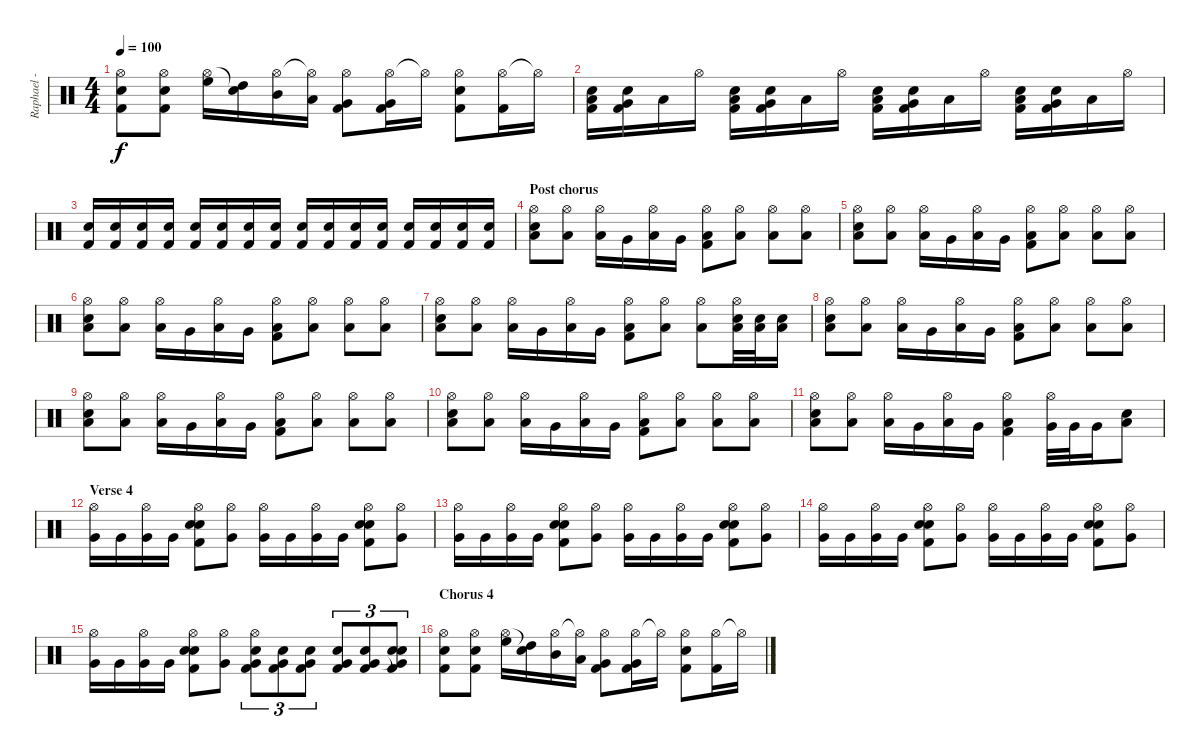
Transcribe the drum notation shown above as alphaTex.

\track ("Raphael - Batterie" "Raphael - ") {instrument percussion}
\staff {score}
\articulation defaults
\ts (4 4)
\tempo 100
\clef neutral
\ks c
("Hi-Hat (open)" "Electric Snare (hit)" "Kick (hit) 2").8{dy f} ("Hi-Hat (open)" "Electric Snare (hit)" "Kick (hit) 2").8 ("Hi-Hat (open)" "High Floor Tom (hit)").16 ("Snare (hit)"{t} "High Tom (hit)").16 ("Hi-Hat (open)" "Mid Tom (hit)").16 ("Hi-Hat (open)"{t} "Low Tom (hit)").16 ("Hi-Hat (open)" "Very Low Tom (hit)" "Kick (hit) 2").8 ("Hi-Hat (open)" "Very Low Tom (hit)" "Kick (hit) 2").16 "Hi-Hat (open)"{t}.16 ("Hi-Hat (open)" "Snare (hit) 2" "Kick (hit) 2").8 ("Hi-Hat (open)" "Kick (hit) 2").16 "Hi-Hat (open)"{t}.16 |
("Low Tom (hit)" "Electric Snare (hit)" "Kick (hit) 2").16 ("Very Low Tom (hit)" "Electric Snare (hit)" "Kick (hit) 2").16 "Low Floor Tom (hit)".16 "Hi-Hat (open)".16 ("Low Tom (hit)" "Electric Snare (hit)" "Kick (hit) 2").16 ("Very Low Tom (hit)" "Electric Snare (hit)" "Kick (hit) 2").16 "Low Floor Tom (hit)".16 "Hi-Hat (open)".16 ("Low Tom (hit)" "Electric Snare (hit)" "Kick (hit) 2").16 ("Very Low Tom (hit)" "Electric Snare (hit)" "Kick (hit) 2").16 "Low Floor Tom (hit)".16 "Hi-Hat (open)".16 ("Low Tom (hit)" "Electric Snare (hit)" "Kick (hit) 2").16 ("Very Low Tom (hit)" "Electric Snare (hit)" "Kick (hit) 2").16 "Low Floor Tom (hit)".16 "Hi-Hat (open)".16 |
("Electric Snare (hit)" "Kick (hit) 2").16 ("Electric Snare (hit)" "Kick (hit) 2").16 ("Electric Snare (hit)" "Kick (hit) 2").16 ("Electric Snare (hit)" "Kick (hit) 2").16 ("Electric Snare (hit)" "Kick (hit) 2").16 ("Electric Snare (hit)" "Kick (hit) 2").16 ("Electric Snare (hit)" "Kick (hit) 2").16 ("Electric Snare (hit)" "Kick (hit) 2").16 ("Electric Snare (hit)" "Kick (hit) 2").16 ("Electric Snare (hit)" "Kick (hit) 2").16 ("Electric Snare (hit)" "Kick (hit) 2").16 ("Electric Snare (hit)" "Kick (hit) 2").16 ("Electric Snare (hit)" "Kick (hit) 2").16 ("Electric Snare (hit)" "Kick (hit) 2").16 ("Electric Snare (hit)" "Kick (hit) 2").16 ("Electric Snare (hit)" "Kick (hit) 2").16 |
\section ("" "Post chorus")
("Hi-Hat (open)" "Low Floor Tom (hit)" "Snare (hit) 2").8 ("Hi-Hat (open)" "Low Floor Tom (hit)").8 ("Hi-Hat (open)" "Low Tom (hit)").16 "Very Low Tom (hit)".16 ("Hi-Hat (open)" "Low Floor Tom (hit)").16 "Very Low Tom (hit)".16 ("Hi-Hat (open)" "Low Floor Tom (hit)" "Kick (hit) 2").8 ("Hi-Hat (open)" "Low Floor Tom (hit)").8 ("Hi-Hat (open)" "Low Floor Tom (hit)").8 ("Hi-Hat (open)" "Low Floor Tom (hit)").8 |
("Hi-Hat (open)" "Low Floor Tom (hit)" "Snare (hit) 2").8 ("Hi-Hat (open)" "Low Floor Tom (hit)").8 ("Hi-Hat (open)" "Low Tom (hit)").16 "Very Low Tom (hit)".16 ("Hi-Hat (open)" "Low Floor Tom (hit)").16 "Very Low Tom (hit)".16 ("Hi-Hat (open)" "Low Floor Tom (hit)" "Kick (hit) 2").8 ("Hi-Hat (open)" "Low Floor Tom (hit)").8 ("Hi-Hat (open)" "Low Floor Tom (hit)").8 ("Hi-Hat (open)" "Low Floor Tom (hit)").8 |
("Hi-Hat (open)" "Low Floor Tom (hit)" "Snare (hit) 2").8 ("Hi-Hat (open)" "Low Floor Tom (hit)").8 ("Hi-Hat (open)" "Low Tom (hit)").16 "Very Low Tom (hit)".16 ("Hi-Hat (open)" "Low Floor Tom (hit)").16 "Very Low Tom (hit)".16 ("Hi-Hat (open)" "Low Floor Tom (hit)" "Kick (hit) 2").8 ("Hi-Hat (open)" "Low Floor Tom (hit)").8 ("Hi-Hat (open)" "Low Floor Tom (hit)").8 ("Hi-Hat (open)" "Low Floor Tom (hit)").8 |
("Hi-Hat (open)" "Low Floor Tom (hit)" "Snare (hit) 2").8 ("Hi-Hat (open)" "Low Floor Tom (hit)").8 ("Hi-Hat (open)" "Low Tom (hit)").16 "Very Low Tom (hit)".16 ("Hi-Hat (open)" "Low Floor Tom (hit)").16 "Very Low Tom (hit)".16 ("Hi-Hat (open)" "Low Floor Tom (hit)" "Kick (hit) 2").8 ("Hi-Hat (open)" "Low Floor Tom (hit)").8 ("Hi-Hat (open)" "Low Floor Tom (hit)").8 ("Hi-Hat (open)" "Low Floor Tom (hit)" "Snare (hit) 2").32 ("Low Floor Tom (hit)" "Snare (hit) 2").32 ("Low Floor Tom (hit)" "Snare (hit) 2").16 |
("Hi-Hat (open)" "Low Floor Tom (hit)" "Snare (hit) 2").8 ("Hi-Hat (open)" "Low Floor Tom (hit)").8 ("Hi-Hat (open)" "Low Tom (hit)").16 "Very Low Tom (hit)".16 ("Hi-Hat (open)" "Low Floor Tom (hit)").16 "Very Low Tom (hit)".16 ("Hi-Hat (open)" "Low Floor Tom (hit)" "Kick (hit) 2").8 ("Hi-Hat (open)" "Low Floor Tom (hit)").8 ("Hi-Hat (open)" "Low Floor Tom (hit)").8 ("Hi-Hat (open)" "Low Floor Tom (hit)").8 |
("Hi-Hat (open)" "Low Floor Tom (hit)" "Snare (hit) 2").8 ("Hi-Hat (open)" "Low Floor Tom (hit)").8 ("Hi-Hat (open)" "Low Tom (hit)").16 "Very Low Tom (hit)".16 ("Hi-Hat (open)" "Low Floor Tom (hit)").16 "Very Low Tom (hit)".16 ("Hi-Hat (open)" "Low Floor Tom (hit)" "Kick (hit) 2").8 ("Hi-Hat (open)" "Low Floor Tom (hit)").8 ("Hi-Hat (open)" "Low Floor Tom (hit)").8 ("Hi-Hat (open)" "Low Floor Tom (hit)").8 |
("Hi-Hat (open)" "Low Floor Tom (hit)" "Snare (hit) 2").8 ("Hi-Hat (open)" "Low Floor Tom (hit)").8 ("Hi-Hat (open)" "Low Tom (hit)").16 "Very Low Tom (hit)".16 ("Hi-Hat (open)" "Low Floor Tom (hit)").16 "Very Low Tom (hit)".16 ("Hi-Hat (open)" "Low Floor Tom (hit)" "Kick (hit) 2").8 ("Hi-Hat (open)" "Low Floor Tom (hit)").8 ("Hi-Hat (open)" "Low Floor Tom (hit)").8 ("Hi-Hat (open)" "Low Floor Tom (hit)").8 |
("Hi-Hat (open)" "Low Floor Tom (hit)" "Snare (hit) 2").8 ("Hi-Hat (open)" "Low Floor Tom (hit)").8 ("Hi-Hat (open)" "Low Tom (hit)").16 "Very Low Tom (hit)".16 ("Hi-Hat (open)" "Low Floor Tom (hit)").16 "Very Low Tom (hit)".16 ("Hi-Hat (open)" "Low Floor Tom (hit)" "Kick (hit) 2").4 ("Hi-Hat (open)" "Very Low Tom (hit)").32 "Very Low Tom (hit)".32 "Very Low Tom (hit)".16 ("Low Floor Tom (hit)" "Snare (hit) 2").8 |
\section ("" "Verse 4")
("Hi-Hat (open)" "Very Low Tom (hit)").16 "Very Low Tom (hit)".16 ("Hi-Hat (open)" "Very Low Tom (hit)").16 "Very Low Tom (hit)".16 ("Hi-Hat (open)" "Hand Clap (hit)" "Snare (hit) 2" "Kick (hit) 2").8 ("Hi-Hat (open)" "Very Low Tom (hit)").8 ("Hi-Hat (open)" "Very Low Tom (hit)").16 "Very Low Tom (hit)".16 ("Hi-Hat (open)" "Very Low Tom (hit)").16 "Very Low Tom (hit)".16 ("Hi-Hat (open)" "Hand Clap (hit)" "Snare (hit) 2" "Kick (hit) 2").8 ("Hi-Hat (open)" "Very Low Tom (hit)").8 |
("Hi-Hat (open)" "Very Low Tom (hit)").16 "Very Low Tom (hit)".16 ("Hi-Hat (open)" "Very Low Tom (hit)").16 "Very Low Tom (hit)".16 ("Hi-Hat (open)" "Hand Clap (hit)" "Snare (hit) 2" "Kick (hit) 2").8 ("Hi-Hat (open)" "Very Low Tom (hit)").8 ("Hi-Hat (open)" "Very Low Tom (hit)").16 "Very Low Tom (hit)".16 ("Hi-Hat (open)" "Very Low Tom (hit)").16 "Very Low Tom (hit)".16 ("Hi-Hat (open)" "Hand Clap (hit)" "Snare (hit) 2" "Kick (hit) 2").8 ("Hi-Hat (open)" "Very Low Tom (hit)").8 |
("Hi-Hat (open)" "Very Low Tom (hit)").16 "Very Low Tom (hit)".16 ("Hi-Hat (open)" "Very Low Tom (hit)").16 "Very Low Tom (hit)".16 ("Hi-Hat (open)" "Hand Clap (hit)" "Snare (hit) 2" "Kick (hit) 2").8 ("Hi-Hat (open)" "Very Low Tom (hit)").8 ("Hi-Hat (open)" "Very Low Tom (hit)").16 "Very Low Tom (hit)".16 ("Hi-Hat (open)" "Very Low Tom (hit)").16 "Very Low Tom (hit)".16 ("Hi-Hat (open)" "Hand Clap (hit)" "Snare (hit) 2" "Kick (hit) 2").8 ("Hi-Hat (open)" "Very Low Tom (hit)").8 |
("Hi-Hat (open)" "Very Low Tom (hit)").16 "Very Low Tom (hit)".16 ("Hi-Hat (open)" "Very Low Tom (hit)").16 "Very Low Tom (hit)".16 ("Hi-Hat (open)" "Hand Clap (hit)" "Snare (hit) 2" "Kick (hit) 2").8 ("Hi-Hat (open)" "Very Low Tom (hit)").8 ("Hi-Hat (open)" "Very Low Tom (hit)" "Snare (hit) 2" "Kick (hit) 2").8{tu (3 2)} ("Very Low Tom (hit)" "Snare (hit) 2" "Kick (hit) 2").8{tu (3 2)} ("Very Low Tom (hit)" "Snare (hit) 2" "Kick (hit) 2").8{tu (3 2)} ("Very Low Tom (hit)" "Snare (hit) 2" "Kick (hit) 2").8{tu (3 2)} ("Very Low Tom (hit)" "Snare (hit) 2" "Kick (hit) 2").8{tu (3 2)} ("Snare (hit)"{t} "Very Low Tom (hit)" "Snare (hit) 2" "Kick (hit) 2").8{tu (3 2)} |
\section ("" "Chorus 4")
("Hi-Hat (open)" "Electric Snare (hit)" "Kick (hit) 2").8 ("Hi-Hat (open)" "Electric Snare (hit)" "Kick (hit) 2").8 ("Hi-Hat (open)" "High Floor Tom (hit)").16 ("Snare (hit)"{t} "High Tom (hit)").16 ("Hi-Hat (open)" "Mid Tom (hit)").16 ("Hi-Hat (open)"{t} "Low Tom (hit)").16 ("Hi-Hat (open)" "Very Low Tom (hit)" "Kick (hit) 2").8 ("Hi-Hat (open)" "Very Low Tom (hit)" "Kick (hit) 2").16 "Hi-Hat (open)"{t}.16 ("Hi-Hat (open)" "Snare (hit) 2" "Kick (hit) 2").8 ("Hi-Hat (open)" "Kick (hit) 2").16 "Hi-Hat (open)"{t}.16
